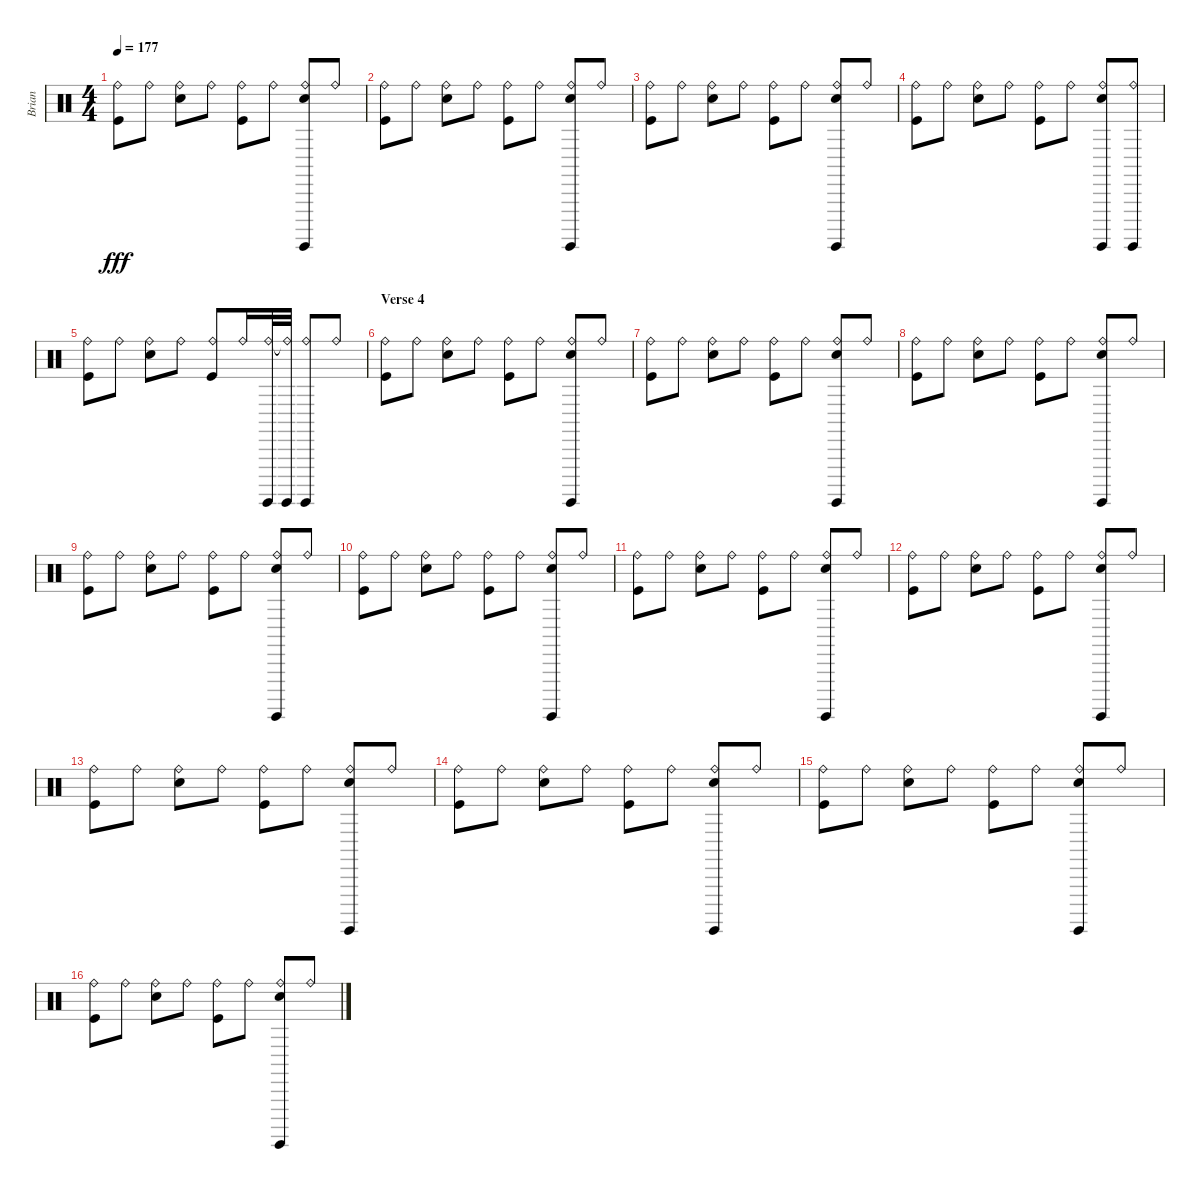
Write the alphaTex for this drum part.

\track ("Brian" "Brian") {instrument percussion}
\staff {score}
\articulation defaults
\ts (4 4)
\tempo 177
\clef neutral
\ks c
("Ride (bell)" "Kick (hit)").8{dy fff} "Ride (bell)".8 ("Ride (bell)" "Electric Snare (hit)").8 "Ride (bell)".8 ("Ride (bell)" "Kick (hit)").8 "Ride (bell)".8 ("Surdo (hit)" "Ride (bell)" "Electric Snare (hit)").8 "Ride (bell)".8 |
("Ride (bell)" "Kick (hit)").8 "Ride (bell)".8 ("Ride (bell)" "Electric Snare (hit)").8 "Ride (bell)".8 ("Ride (bell)" "Kick (hit)").8 "Ride (bell)".8 ("Surdo (hit)" "Ride (bell)" "Electric Snare (hit)").8 "Ride (bell)".8 |
("Ride (bell)" "Kick (hit)").8 "Ride (bell)".8 ("Ride (bell)" "Electric Snare (hit)").8 "Ride (bell)".8 ("Ride (bell)" "Kick (hit)").8 "Ride (bell)".8 ("Surdo (hit)" "Ride (bell)" "Electric Snare (hit)").8 "Ride (bell)".8 |
("Ride (bell)" "Kick (hit)").8 "Ride (bell)".8 ("Ride (bell)" "Electric Snare (hit)").8 "Ride (bell)".8 ("Ride (bell)" "Kick (hit)").8 "Ride (bell)".8 ("Surdo (hit)" "Ride (bell)" "Electric Snare (hit)").8 ("Surdo (hit)" "Ride (bell)").8 |
("Ride (bell)" "Kick (hit)").8 "Ride (bell)".8 ("Ride (bell)" "Electric Snare (hit)").8 "Ride (bell)".8 ("Ride (bell)" "Kick (hit)").8 "Ride (bell)".16 ("Surdo (hit)" "Ride (bell)").32 ("Surdo (hit)" "Ride (bell)"{t}).32 ("Surdo (hit)" "Ride (bell)").8 "Ride (bell)".8 |
\section ("" "Verse 4")
("Ride (bell)" "Kick (hit)").8 "Ride (bell)".8 ("Ride (bell)" "Electric Snare (hit)").8 "Ride (bell)".8 ("Ride (bell)" "Kick (hit)").8 "Ride (bell)".8 ("Surdo (hit)" "Ride (bell)" "Electric Snare (hit)").8 "Ride (bell)".8 |
("Ride (bell)" "Kick (hit)").8 "Ride (bell)".8 ("Ride (bell)" "Electric Snare (hit)").8 "Ride (bell)".8 ("Ride (bell)" "Kick (hit)").8 "Ride (bell)".8 ("Surdo (hit)" "Ride (bell)" "Electric Snare (hit)").8 "Ride (bell)".8 |
("Ride (bell)" "Kick (hit)").8 "Ride (bell)".8 ("Ride (bell)" "Electric Snare (hit)").8 "Ride (bell)".8 ("Ride (bell)" "Kick (hit)").8 "Ride (bell)".8 ("Surdo (hit)" "Ride (bell)" "Electric Snare (hit)").8 "Ride (bell)".8 |
("Ride (bell)" "Kick (hit)").8 "Ride (bell)".8 ("Ride (bell)" "Electric Snare (hit)").8 "Ride (bell)".8 ("Ride (bell)" "Kick (hit)").8 "Ride (bell)".8 ("Surdo (hit)" "Ride (bell)" "Electric Snare (hit)").8 "Ride (bell)".8 |
("Ride (bell)" "Kick (hit)").8 "Ride (bell)".8 ("Ride (bell)" "Electric Snare (hit)").8 "Ride (bell)".8 ("Ride (bell)" "Kick (hit)").8 "Ride (bell)".8 ("Surdo (hit)" "Ride (bell)" "Electric Snare (hit)").8 "Ride (bell)".8 |
("Ride (bell)" "Kick (hit)").8 "Ride (bell)".8 ("Ride (bell)" "Electric Snare (hit)").8 "Ride (bell)".8 ("Ride (bell)" "Kick (hit)").8 "Ride (bell)".8 ("Surdo (hit)" "Ride (bell)" "Electric Snare (hit)").8 "Ride (bell)".8 |
("Ride (bell)" "Kick (hit)").8 "Ride (bell)".8 ("Ride (bell)" "Electric Snare (hit)").8 "Ride (bell)".8 ("Ride (bell)" "Kick (hit)").8 "Ride (bell)".8 ("Surdo (hit)" "Ride (bell)" "Electric Snare (hit)").8 "Ride (bell)".8 |
("Ride (bell)" "Kick (hit)").8 "Ride (bell)".8 ("Ride (bell)" "Electric Snare (hit)").8 "Ride (bell)".8 ("Ride (bell)" "Kick (hit)").8 "Ride (bell)".8 ("Surdo (hit)" "Ride (bell)" "Electric Snare (hit)").8 "Ride (bell)".8 |
("Ride (bell)" "Kick (hit)").8 "Ride (bell)".8 ("Ride (bell)" "Electric Snare (hit)").8 "Ride (bell)".8 ("Ride (bell)" "Kick (hit)").8 "Ride (bell)".8 ("Surdo (hit)" "Ride (bell)" "Electric Snare (hit)").8 "Ride (bell)".8 |
("Ride (bell)" "Kick (hit)").8 "Ride (bell)".8 ("Ride (bell)" "Electric Snare (hit)").8 "Ride (bell)".8 ("Ride (bell)" "Kick (hit)").8 "Ride (bell)".8 ("Surdo (hit)" "Ride (bell)" "Electric Snare (hit)").8 "Ride (bell)".8 |
("Ride (bell)" "Kick (hit)").8 "Ride (bell)".8 ("Ride (bell)" "Electric Snare (hit)").8 "Ride (bell)".8 ("Ride (bell)" "Kick (hit)").8 "Ride (bell)".8 ("Surdo (hit)" "Ride (bell)" "Electric Snare (hit)").8 "Ride (bell)".8
